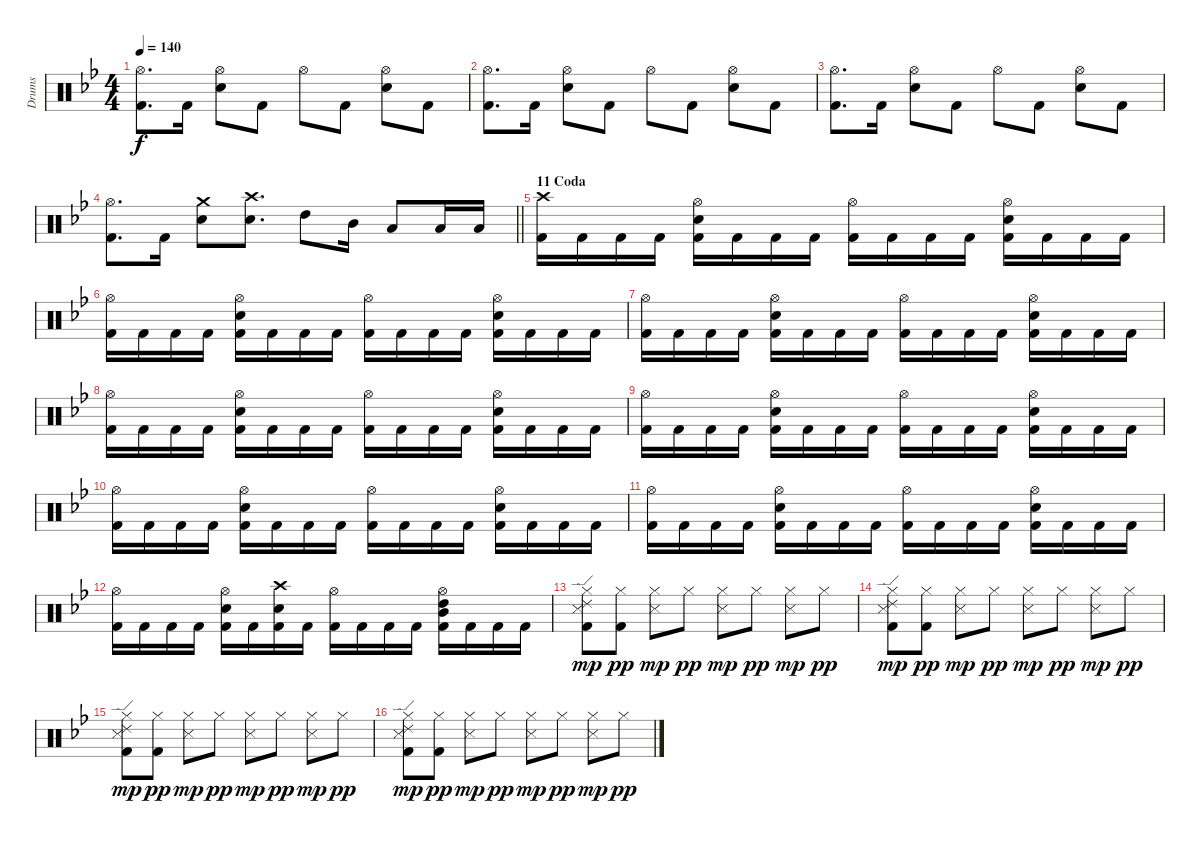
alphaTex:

\track ("Drums" "Drums") {instrument percussion}
\staff {score}
\articulation defaults
\ts (4 4)
\tempo 140
\clef neutral
\ks bb
("Hi-Hat (open)" "Kick (hit) 2").8{d dy f} "Kick (hit) 2".16 ("Electric Snare (hit)" "Hi-Hat (open)").8 "Kick (hit) 2".8 "Hi-Hat (open)".8 "Kick (hit) 2".8 ("Hi-Hat (open)" "Electric Snare (hit)").8 "Kick (hit) 2".8 |
("Hi-Hat (open)" "Kick (hit) 2").8{d} "Kick (hit) 2".16 ("Electric Snare (hit)" "Hi-Hat (open)").8 "Kick (hit) 2".8 "Hi-Hat (open)".8 "Kick (hit) 2".8 ("Hi-Hat (open)" "Electric Snare (hit)").8 "Kick (hit) 2".8 |
("Hi-Hat (open)" "Kick (hit) 2").8{d} "Kick (hit) 2".16 ("Electric Snare (hit)" "Hi-Hat (open)").8 "Kick (hit) 2".8 "Hi-Hat (open)".8 "Kick (hit) 2".8 ("Hi-Hat (open)" "Electric Snare (hit)").8 "Kick (hit) 2".8 |
\barLineRight lightlight
("Hi-Hat (open)" "Kick (hit) 2").8{d} "Kick (hit) 2".16 ("Electric Snare (hit)" "Crash medium (hit)").8 ("Electric Snare (hit)" "Crash high (hit)").8{d} "High Tom (hit)".8 "Mid Tom (hit)".16 "Low Tom (hit)".8 "Low Floor Tom (hit)".16 "Low Floor Tom (hit)".16 |
\section ("" "11 Coda")
("Crash high (hit)" "Kick (hit) 2").16 "Kick (hit) 2".16 "Kick (hit) 2".16 "Kick (hit) 2".16 ("Hi-Hat (open)" "Electric Snare (hit)" "Kick (hit) 2").16 "Kick (hit) 2".16 "Kick (hit) 2".16 "Kick (hit) 2".16 ("Hi-Hat (open)" "Kick (hit) 2").16 "Kick (hit) 2".16 "Kick (hit) 2".16 "Kick (hit) 2".16 ("Hi-Hat (open)" "Electric Snare (hit)" "Kick (hit) 2").16 "Kick (hit) 2".16 "Kick (hit) 2".16 "Kick (hit) 2".16 |
("Hi-Hat (open)" "Kick (hit) 2").16 "Kick (hit) 2".16 "Kick (hit) 2".16 "Kick (hit) 2".16 ("Hi-Hat (open)" "Electric Snare (hit)" "Kick (hit) 2").16 "Kick (hit) 2".16 "Kick (hit) 2".16 "Kick (hit) 2".16 ("Hi-Hat (open)" "Kick (hit) 2").16 "Kick (hit) 2".16 "Kick (hit) 2".16 "Kick (hit) 2".16 ("Hi-Hat (open)" "Electric Snare (hit)" "Kick (hit) 2").16 "Kick (hit) 2".16 "Kick (hit) 2".16 "Kick (hit) 2".16 |
("Hi-Hat (open)" "Kick (hit) 2").16 "Kick (hit) 2".16 "Kick (hit) 2".16 "Kick (hit) 2".16 ("Hi-Hat (open)" "Electric Snare (hit)" "Kick (hit) 2").16 "Kick (hit) 2".16 "Kick (hit) 2".16 "Kick (hit) 2".16 ("Hi-Hat (open)" "Kick (hit) 2").16 "Kick (hit) 2".16 "Kick (hit) 2".16 "Kick (hit) 2".16 ("Hi-Hat (open)" "Electric Snare (hit)" "Kick (hit) 2").16 "Kick (hit) 2".16 "Kick (hit) 2".16 "Kick (hit) 2".16 |
("Hi-Hat (open)" "Kick (hit) 2").16 "Kick (hit) 2".16 "Kick (hit) 2".16 "Kick (hit) 2".16 ("Hi-Hat (open)" "Electric Snare (hit)" "Kick (hit) 2").16 "Kick (hit) 2".16 "Kick (hit) 2".16 "Kick (hit) 2".16 ("Hi-Hat (open)" "Kick (hit) 2").16 "Kick (hit) 2".16 "Kick (hit) 2".16 "Kick (hit) 2".16 ("Hi-Hat (open)" "Electric Snare (hit)" "Kick (hit) 2").16 "Kick (hit) 2".16 "Kick (hit) 2".16 "Kick (hit) 2".16 |
("Hi-Hat (open)" "Kick (hit) 2").16 "Kick (hit) 2".16 "Kick (hit) 2".16 "Kick (hit) 2".16 ("Hi-Hat (open)" "Electric Snare (hit)" "Kick (hit) 2").16 "Kick (hit) 2".16 "Kick (hit) 2".16 "Kick (hit) 2".16 ("Hi-Hat (open)" "Kick (hit) 2").16 "Kick (hit) 2".16 "Kick (hit) 2".16 "Kick (hit) 2".16 ("Hi-Hat (open)" "Electric Snare (hit)" "Kick (hit) 2").16 "Kick (hit) 2".16 "Kick (hit) 2".16 "Kick (hit) 2".16 |
("Hi-Hat (open)" "Kick (hit) 2").16 "Kick (hit) 2".16 "Kick (hit) 2".16 "Kick (hit) 2".16 ("Hi-Hat (open)" "Electric Snare (hit)" "Kick (hit) 2").16 "Kick (hit) 2".16 "Kick (hit) 2".16 "Kick (hit) 2".16 ("Hi-Hat (open)" "Kick (hit) 2").16 "Kick (hit) 2".16 "Kick (hit) 2".16 "Kick (hit) 2".16 ("Hi-Hat (open)" "Electric Snare (hit)" "Kick (hit) 2").16 "Kick (hit) 2".16 "Kick (hit) 2".16 "Kick (hit) 2".16 |
("Hi-Hat (open)" "Kick (hit) 2").16 "Kick (hit) 2".16 "Kick (hit) 2".16 "Kick (hit) 2".16 ("Hi-Hat (open)" "Electric Snare (hit)" "Kick (hit) 2").16 "Kick (hit) 2".16 "Kick (hit) 2".16 "Kick (hit) 2".16 ("Hi-Hat (open)" "Kick (hit) 2").16 "Kick (hit) 2".16 "Kick (hit) 2".16 "Kick (hit) 2".16 ("Hi-Hat (open)" "Electric Snare (hit)" "Kick (hit) 2").16 "Kick (hit) 2".16 "Kick (hit) 2".16 "Kick (hit) 2".16 |
("Hi-Hat (open)" "Kick (hit) 2").16 "Kick (hit) 2".16 "Kick (hit) 2".16 "Kick (hit) 2".16 ("Hi-Hat (open)" "Electric Snare (hit)" "Kick (hit) 2").16 "Kick (hit) 2".16 ("Kick (hit) 2" "Crash high (hit)" "Electric Snare (hit)").16 "Kick (hit) 2".16 ("Hi-Hat (open)" "Kick (hit) 2").16 "Kick (hit) 2".16 "Kick (hit) 2".16 "Kick (hit) 2".16 ("Hi-Hat (open)" "High Tom (hit)" "Mid Tom (hit)" "Kick (hit) 2").16 "Kick (hit) 2".16 "Kick (hit) 2".16 "Kick (hit) 2".16 |
("Ride (edge) 2" "Kick (hit) 2" "Snare (side stick) 3" "Hi-Hat (closed)").8{dy mp} ("Kick (hit) 2" "Hi-Hat (closed)").8{dy pp} ("Snare (side stick) 3" "Hi-Hat (closed)").8{dy mp} "Hi-Hat (closed)".8{dy pp} ("Hi-Hat (closed)" "Snare (side stick) 3").8{dy mp} "Hi-Hat (closed)".8{dy pp} ("Hi-Hat (closed)" "Snare (side stick) 3").8{dy mp} "Hi-Hat (closed)".8{dy pp} |
("Ride (edge) 2" "Kick (hit) 2" "Snare (side stick) 3" "Hi-Hat (closed)").8{dy mp} ("Kick (hit) 2" "Hi-Hat (closed)").8{dy pp} ("Snare (side stick) 3" "Hi-Hat (closed)").8{dy mp} "Hi-Hat (closed)".8{dy pp} ("Hi-Hat (closed)" "Snare (side stick) 3").8{dy mp} "Hi-Hat (closed)".8{dy pp} ("Hi-Hat (closed)" "Snare (side stick) 3").8{dy mp} "Hi-Hat (closed)".8{dy pp} |
("Ride (edge) 2" "Kick (hit) 2" "Snare (side stick) 3" "Hi-Hat (closed)").8{dy mp} ("Kick (hit) 2" "Hi-Hat (closed)").8{dy pp} ("Snare (side stick) 3" "Hi-Hat (closed)").8{dy mp} "Hi-Hat (closed)".8{dy pp} ("Hi-Hat (closed)" "Snare (side stick) 3").8{dy mp} "Hi-Hat (closed)".8{dy pp} ("Hi-Hat (closed)" "Snare (side stick) 3").8{dy mp} "Hi-Hat (closed)".8{dy pp} |
("Ride (edge) 2" "Kick (hit) 2" "Snare (side stick) 3" "Hi-Hat (closed)").8{dy mp} ("Kick (hit) 2" "Hi-Hat (closed)").8{dy pp} ("Snare (side stick) 3" "Hi-Hat (closed)").8{dy mp} "Hi-Hat (closed)".8{dy pp} ("Hi-Hat (closed)" "Snare (side stick) 3").8{dy mp} "Hi-Hat (closed)".8{dy pp} ("Hi-Hat (closed)" "Snare (side stick) 3").8{dy mp} "Hi-Hat (closed)".8{dy pp}
